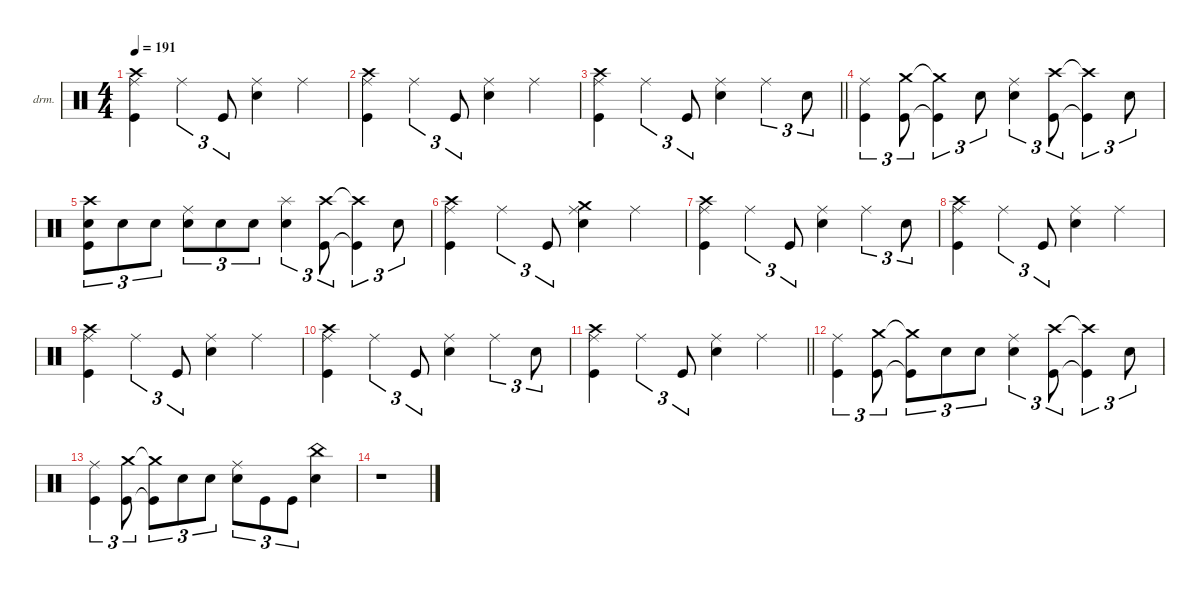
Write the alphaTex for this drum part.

\defaultSystemsLayout 4
\hideDynamics
\bracketExtendMode nobrackets
\firstSystemTrackNameOrientation horizontal
\otherSystemsTrackNameOrientation horizontal
\track ("Drumkit" "drm.") {instrument percussion}
\staff {score}
\articulation defaults
\ts (4 4)
\tempo 191
\clef neutral
\ks c
("Kick (hit)" "Crash high (hit)" "Ride (middle)").4{dy f beam Down} "Ride (middle)".4{tu (3 2) dy mp beam Down} "Kick (hit)".8{tu (3 2) dy f beam Up} ("Snare (hit) 2" "Ride (middle)").4{beam Down} "Ride (middle)".4{dy mp beam Down} |
("Kick (hit)" "Crash high (hit)" "Ride (middle)").4{dy f beam Down} "Ride (middle)".4{tu (3 2) dy mp beam Down} "Kick (hit)".8{tu (3 2) dy f beam Up} ("Snare (hit) 2" "Ride (middle)").4{beam Down} "Ride (middle)".4{dy mp beam Down} |
\barLineRight lightlight
("Kick (hit)" "Crash high (hit)" "Ride (middle)").4{dy f beam Down} "Ride (middle)".4{tu (3 2) dy mp beam Down} "Kick (hit)".8{tu (3 2) dy f beam Up} ("Snare (hit) 2" "Ride (middle)").4{beam Down} "Ride (middle)".4{tu (3 2) dy mp beam Down} "Snare (hit) 2".8{tu (3 2) dy f beam Down} |
("Kick (hit)" "Ride (middle)").4{tu (3 2) beam Down} ("Kick (hit)" "Crash medium (hit)").8{tu (3 2) beam Down} ("Kick (hit)"{t} "Crash medium (hit)"{t}).4{tu (3 2) beam Down} "Snare (hit) 2".8{tu (3 2) beam Down} ("Snare (hit) 2" "Ride (middle)").4{tu (3 2) beam Down} ("Kick (hit)" "Crash high (hit)").8{tu (3 2) beam Down} ("Kick (hit)"{t} "Crash high (hit)"{t}).4{tu (3 2) beam Down} "Snare (hit) 2".8{tu (3 2) beam Down} |
("Kick (hit)" "Crash high (hit)" "Snare (hit) 2").8{tu (3 2) beam Down} "Snare (hit) 2".8{tu (3 2) beam Down} "Snare (hit) 2".8{tu (3 2) beam Down} ("Ride (middle)" "Snare (hit) 2").8{tu (3 2) dy mp beam Down} "Snare (hit) 2".8{tu (3 2) dy f beam Down} "Snare (hit) 2".8{tu (3 2) beam Down} ("Snare (hit) 2" "Splash (hit)").4{tu (3 2) beam Down} ("Kick (hit)" "Crash high (hit)").8{tu (3 2) beam Down} ("Kick (hit)"{t} "Crash high (hit)"{t}).4{tu (3 2) beam Down} "Snare (hit) 2".8{tu (3 2) beam Down} |
("Kick (hit)" "Crash high (hit)" "Ride (middle)").4{beam Down} "Ride (middle)".4{tu (3 2) dy mp beam Down} "Kick (hit)".8{tu (3 2) dy f beam Up} ("Snare (hit) 2" "Ride (middle)" "Crash medium (hit)").4{beam Down} "Ride (middle)".4{dy mp beam Down} |
("Kick (hit)" "Crash high (hit)" "Ride (middle)").4{dy f beam Down} "Ride (middle)".4{tu (3 2) dy mp beam Down} "Kick (hit)".8{tu (3 2) dy f beam Up} ("Snare (hit) 2" "Ride (middle)").4{beam Down} "Ride (middle)".4{tu (3 2) dy mp beam Down} "Snare (hit) 2".8{tu (3 2) dy f beam Down} |
("Kick (hit)" "Crash high (hit)" "Ride (middle)").4{beam Down} "Ride (middle)".4{tu (3 2) dy mp beam Down} "Kick (hit)".8{tu (3 2) dy f beam Up} ("Snare (hit) 2" "Ride (middle)").4{beam Down} "Ride (middle)".4{dy mp beam Down} |
("Kick (hit)" "Crash high (hit)" "Ride (middle)").4{dy f beam Down} "Ride (middle)".4{tu (3 2) dy mp beam Down} "Kick (hit)".8{tu (3 2) dy f beam Up} ("Snare (hit) 2" "Ride (middle)").4{beam Down} "Ride (middle)".4{dy mp beam Down} |
("Kick (hit)" "Crash high (hit)" "Ride (middle)").4{dy f beam Down} "Ride (middle)".4{tu (3 2) dy mp beam Down} "Kick (hit)".8{tu (3 2) dy f beam Up} ("Snare (hit) 2" "Ride (middle)").4{beam Down} "Ride (middle)".4{tu (3 2) dy mp beam Down} "Snare (hit) 2".8{tu (3 2) dy f beam Down} |
\barLineRight lightlight
("Kick (hit)" "Crash high (hit)" "Ride (middle)").4{beam Down} "Ride (middle)".4{tu (3 2) dy mp beam Down} "Kick (hit)".8{tu (3 2) dy f beam Up} ("Snare (hit) 2" "Ride (middle)").4{beam Down} "Ride (middle)".4{dy mp beam Down} |
("Kick (hit)" "Ride (middle)").4{tu (3 2) dy f beam Down} ("Kick (hit)" "Crash medium (hit)").8{tu (3 2) beam Down} ("Kick (hit)"{t} "Crash medium (hit)"{t}).8{tu (3 2) beam Down} "Snare (hit) 2".8{tu (3 2) beam Down} "Snare (hit) 2".8{tu (3 2) beam Down} ("Snare (hit) 2" "Ride (middle)").4{tu (3 2) beam Down} ("Kick (hit)" "Crash high (hit)").8{tu (3 2) beam Down} ("Kick (hit)"{t} "Crash high (hit)"{t}).4{tu (3 2) beam Down} "Snare (hit) 2".8{tu (3 2) beam Down} |
("Kick (hit)" "Ride (middle)").4{tu (3 2) beam Down} ("Kick (hit)" "Crash medium (hit)").8{tu (3 2) beam Down} ("Kick (hit)"{t} "Crash medium (hit)"{t}).8{tu (3 2) beam Down} "Snare (hit) 2".8{tu (3 2) beam Down} "Snare (hit) 2".8{tu (3 2) beam Down} ("Snare (hit) 2" "Ride (middle)").8{tu (3 2) beam Down} "Kick (hit)".8{tu (3 2) beam Down} "Kick (hit)".8{tu (3 2) beam Down} ("Snare (hit) 2" "China (hit)").4{dy ff beam Down} |
r.1{beam Down}
